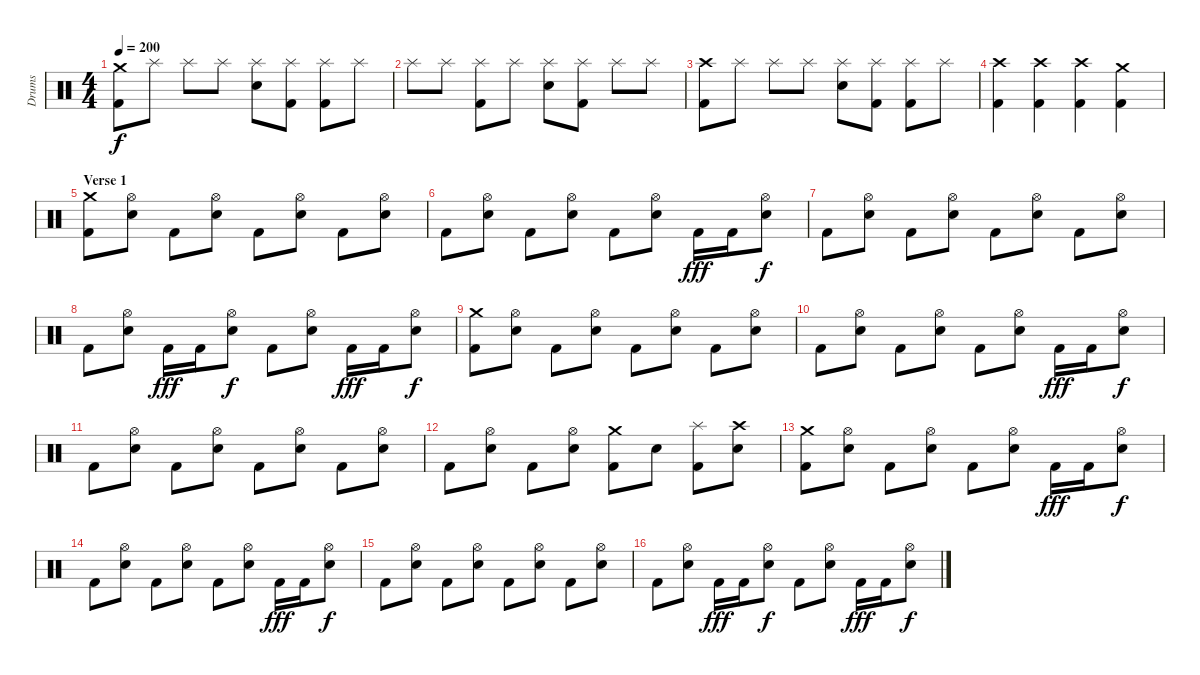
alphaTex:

\track ("Drums" "Drums") {instrument percussion}
\staff {score}
\articulation defaults
\ts (4 4)
\tempo 200
\clef neutral
\ks c
("Crash medium (hit)" "Kick (hit) 2").8{dy f} "Splash (hit)".8 "Splash (hit)".8 "Splash (hit)".8 ("Splash (hit)" "Snare (hit) 2").8 ("Splash (hit)" "Kick (hit) 2").8 ("Splash (hit)" "Kick (hit) 2").8 "Splash (hit)".8 |
"Splash (hit)".8 "Splash (hit)".8 ("Splash (hit)" "Kick (hit) 2").8 "Splash (hit)".8 ("Splash (hit)" "Snare (hit) 2").8 ("Splash (hit)" "Kick (hit) 2").8 "Splash (hit)".8 "Splash (hit)".8 |
("Crash high (hit)" "Kick (hit) 2").8 "Splash (hit)".8 "Splash (hit)".8 "Splash (hit)".8 ("Splash (hit)" "Snare (hit) 2").8 ("Splash (hit)" "Kick (hit) 2").8 ("Splash (hit)" "Kick (hit) 2").8 "Splash (hit)".8 |
("Crash high (hit)" "Kick (hit) 2").4 ("Crash high (hit)" "Kick (hit) 2").4 ("Crash high (hit)" "Kick (hit) 2").4 ("Crash medium (hit)" "Kick (hit) 2").4 |
\section ("" "Verse 1")
("Crash medium (hit)" "Kick (hit) 2").8 ("Hi-Hat (open)" "Snare (hit) 2").8 "Kick (hit) 2".8 ("Hi-Hat (open)" "Snare (hit) 2").8 "Kick (hit) 2".8 ("Hi-Hat (open)" "Snare (hit) 2").8 "Kick (hit) 2".8 ("Hi-Hat (open)" "Snare (hit) 2").8 |
"Kick (hit) 2".8 ("Hi-Hat (open)" "Snare (hit) 2").8 "Kick (hit) 2".8 ("Hi-Hat (open)" "Snare (hit) 2").8 "Kick (hit) 2".8 ("Hi-Hat (open)" "Snare (hit) 2").8 "Kick (hit) 2".16{dy fff} "Kick (hit) 2".16 ("Hi-Hat (open)" "Snare (hit) 2").8{dy f} |
"Kick (hit) 2".8 ("Hi-Hat (open)" "Snare (hit) 2").8 "Kick (hit) 2".8 ("Hi-Hat (open)" "Snare (hit) 2").8 "Kick (hit) 2".8 ("Hi-Hat (open)" "Snare (hit) 2").8 "Kick (hit) 2".8 ("Hi-Hat (open)" "Snare (hit) 2").8 |
"Kick (hit) 2".8 ("Hi-Hat (open)" "Snare (hit) 2").8 "Kick (hit) 2".16{dy fff} "Kick (hit) 2".16 ("Hi-Hat (open)" "Snare (hit) 2").8{dy f} "Kick (hit) 2".8 ("Hi-Hat (open)" "Snare (hit) 2").8 "Kick (hit) 2".16{dy fff} "Kick (hit) 2".16 ("Hi-Hat (open)" "Snare (hit) 2").8{dy f} |
("Crash medium (hit)" "Kick (hit) 2").8 ("Hi-Hat (open)" "Snare (hit) 2").8 "Kick (hit) 2".8 ("Hi-Hat (open)" "Snare (hit) 2").8 "Kick (hit) 2".8 ("Hi-Hat (open)" "Snare (hit) 2").8 "Kick (hit) 2".8 ("Hi-Hat (open)" "Snare (hit) 2").8 |
"Kick (hit) 2".8 ("Hi-Hat (open)" "Snare (hit) 2").8 "Kick (hit) 2".8 ("Hi-Hat (open)" "Snare (hit) 2").8 "Kick (hit) 2".8 ("Hi-Hat (open)" "Snare (hit) 2").8 "Kick (hit) 2".16{dy fff} "Kick (hit) 2".16 ("Hi-Hat (open)" "Snare (hit) 2").8{dy f} |
"Kick (hit) 2".8 ("Hi-Hat (open)" "Snare (hit) 2").8 "Kick (hit) 2".8 ("Hi-Hat (open)" "Snare (hit) 2").8 "Kick (hit) 2".8 ("Hi-Hat (open)" "Snare (hit) 2").8 "Kick (hit) 2".8 ("Hi-Hat (open)" "Snare (hit) 2").8 |
"Kick (hit) 2".8 ("Hi-Hat (open)" "Snare (hit) 2").8 "Kick (hit) 2".8 ("Hi-Hat (open)" "Snare (hit) 2").8 ("Crash medium (hit)" "Kick (hit) 2").8 "Snare (hit) 2".8 ("Splash (hit)" "Kick (hit) 2").8 ("Crash high (hit)" "Snare (hit) 2").8 |
("Crash medium (hit)" "Kick (hit) 2").8 ("Hi-Hat (open)" "Snare (hit) 2").8 "Kick (hit) 2".8 ("Hi-Hat (open)" "Snare (hit) 2").8 "Kick (hit) 2".8 ("Hi-Hat (open)" "Snare (hit) 2").8 "Kick (hit) 2".16{dy fff} "Kick (hit) 2".16 ("Hi-Hat (open)" "Snare (hit) 2").8{dy f} |
"Kick (hit) 2".8 ("Hi-Hat (open)" "Snare (hit) 2").8 "Kick (hit) 2".8 ("Hi-Hat (open)" "Snare (hit) 2").8 "Kick (hit) 2".8 ("Hi-Hat (open)" "Snare (hit) 2").8 "Kick (hit) 2".16{dy fff} "Kick (hit) 2".16 ("Hi-Hat (open)" "Snare (hit) 2").8{dy f} |
"Kick (hit) 2".8 ("Hi-Hat (open)" "Snare (hit) 2").8 "Kick (hit) 2".8 ("Hi-Hat (open)" "Snare (hit) 2").8 "Kick (hit) 2".8 ("Hi-Hat (open)" "Snare (hit) 2").8 "Kick (hit) 2".8 ("Hi-Hat (open)" "Snare (hit) 2").8 |
"Kick (hit) 2".8 ("Hi-Hat (open)" "Snare (hit) 2").8 "Kick (hit) 2".16{dy fff} "Kick (hit) 2".16 ("Hi-Hat (open)" "Snare (hit) 2").8{dy f} "Kick (hit) 2".8 ("Hi-Hat (open)" "Snare (hit) 2").8 "Kick (hit) 2".16{dy fff} "Kick (hit) 2".16 ("Hi-Hat (open)" "Snare (hit) 2").8{dy f}
